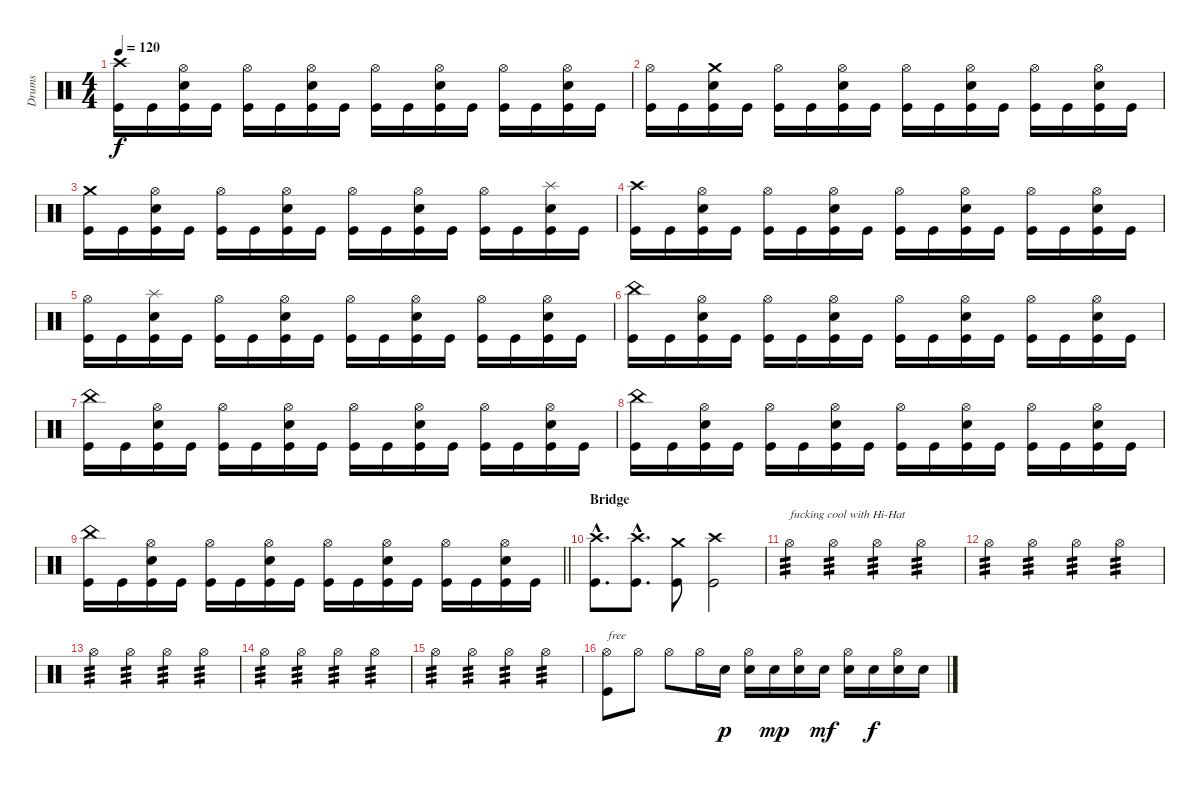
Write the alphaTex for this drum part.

\track ("Drums" "Drums") {instrument percussion}
\staff {score}
\articulation defaults
\ts (4 4)
\tempo 120
\clef neutral
\ks c
("Crash high (hit)" "Kick (hit)").16{dy f} "Kick (hit)".16 ("Hi-Hat (open)" "Electric Snare (hit)" "Kick (hit)").16 "Kick (hit)".16 ("Hi-Hat (open)" "Kick (hit)").16 "Kick (hit)".16 ("Hi-Hat (open)" "Electric Snare (hit)" "Kick (hit)").16 "Kick (hit)".16 ("Hi-Hat (open)" "Kick (hit)").16 "Kick (hit)".16 ("Hi-Hat (open)" "Electric Snare (hit)" "Kick (hit)").16 "Kick (hit)".16 ("Hi-Hat (open)" "Kick (hit)").16 "Kick (hit)".16 ("Hi-Hat (open)" "Electric Snare (hit)" "Kick (hit)").16 "Kick (hit)".16 |
("Hi-Hat (open)" "Kick (hit)").16 "Kick (hit)".16 ("Crash medium (hit)" "Electric Snare (hit)" "Kick (hit)").16 "Kick (hit)".16 ("Hi-Hat (open)" "Kick (hit)").16 "Kick (hit)".16 ("Hi-Hat (open)" "Electric Snare (hit)" "Kick (hit)").16 "Kick (hit)".16 ("Hi-Hat (open)" "Kick (hit)").16 "Kick (hit)".16 ("Hi-Hat (open)" "Electric Snare (hit)" "Kick (hit)").16 "Kick (hit)".16 ("Hi-Hat (open)" "Kick (hit)").16 "Kick (hit)".16 ("Hi-Hat (open)" "Electric Snare (hit)" "Kick (hit)").16 "Kick (hit)".16 |
("Crash medium (hit)" "Kick (hit)").16 "Kick (hit)".16 ("Hi-Hat (open)" "Electric Snare (hit)" "Kick (hit)").16 "Kick (hit)".16 ("Hi-Hat (open)" "Kick (hit)").16 "Kick (hit)".16 ("Hi-Hat (open)" "Electric Snare (hit)" "Kick (hit)").16 "Kick (hit)".16 ("Hi-Hat (open)" "Kick (hit)").16 "Kick (hit)".16 ("Hi-Hat (open)" "Electric Snare (hit)" "Kick (hit)").16 "Kick (hit)".16 ("Hi-Hat (open)" "Kick (hit)").16 "Kick (hit)".16 ("Splash (hit)" "Electric Snare (hit)" "Kick (hit)").16 "Kick (hit)".16 |
("Crash high (hit)" "Kick (hit)").16 "Kick (hit)".16 ("Hi-Hat (open)" "Electric Snare (hit)" "Kick (hit)").16 "Kick (hit)".16 ("Hi-Hat (open)" "Kick (hit)").16 "Kick (hit)".16 ("Hi-Hat (open)" "Electric Snare (hit)" "Kick (hit)").16 "Kick (hit)".16 ("Hi-Hat (open)" "Kick (hit)").16 "Kick (hit)".16 ("Hi-Hat (open)" "Electric Snare (hit)" "Kick (hit)").16 "Kick (hit)".16 ("Hi-Hat (open)" "Kick (hit)").16 "Kick (hit)".16 ("Hi-Hat (open)" "Electric Snare (hit)" "Kick (hit)").16 "Kick (hit)".16 |
("Hi-Hat (open)" "Kick (hit)").16 "Kick (hit)".16 ("Splash (hit)" "Electric Snare (hit)" "Kick (hit)").16 "Kick (hit)".16 ("Hi-Hat (open)" "Kick (hit)").16 "Kick (hit)".16 ("Hi-Hat (open)" "Electric Snare (hit)" "Kick (hit)").16 "Kick (hit)".16 ("Hi-Hat (open)" "Kick (hit)").16 "Kick (hit)".16 ("Hi-Hat (open)" "Electric Snare (hit)" "Kick (hit)").16 "Kick (hit)".16 ("Hi-Hat (open)" "Kick (hit)").16 "Kick (hit)".16 ("Hi-Hat (open)" "Electric Snare (hit)" "Kick (hit)").16 "Kick (hit)".16 |
("China (hit)" "Kick (hit)").16 "Kick (hit)".16 ("Hi-Hat (open)" "Electric Snare (hit)" "Kick (hit)").16 "Kick (hit)".16 ("Hi-Hat (open)" "Kick (hit)").16 "Kick (hit)".16 ("Hi-Hat (open)" "Electric Snare (hit)" "Kick (hit)").16 "Kick (hit)".16 ("Hi-Hat (open)" "Kick (hit)").16 "Kick (hit)".16 ("Hi-Hat (open)" "Electric Snare (hit)" "Kick (hit)").16 "Kick (hit)".16 ("Hi-Hat (open)" "Kick (hit)").16 "Kick (hit)".16 ("Hi-Hat (open)" "Electric Snare (hit)" "Kick (hit)").16 "Kick (hit)".16 |
("China (hit)" "Kick (hit)").16 "Kick (hit)".16 ("Hi-Hat (open)" "Electric Snare (hit)" "Kick (hit)").16 "Kick (hit)".16 ("Hi-Hat (open)" "Kick (hit)").16 "Kick (hit)".16 ("Hi-Hat (open)" "Electric Snare (hit)" "Kick (hit)").16 "Kick (hit)".16 ("Hi-Hat (open)" "Kick (hit)").16 "Kick (hit)".16 ("Hi-Hat (open)" "Electric Snare (hit)" "Kick (hit)").16 "Kick (hit)".16 ("Hi-Hat (open)" "Kick (hit)").16 "Kick (hit)".16 ("Hi-Hat (open)" "Electric Snare (hit)" "Kick (hit)").16 "Kick (hit)".16 |
("China (hit)" "Kick (hit)").16 "Kick (hit)".16 ("Hi-Hat (open)" "Electric Snare (hit)" "Kick (hit)").16 "Kick (hit)".16 ("Hi-Hat (open)" "Kick (hit)").16 "Kick (hit)".16 ("Hi-Hat (open)" "Electric Snare (hit)" "Kick (hit)").16 "Kick (hit)".16 ("Hi-Hat (open)" "Kick (hit)").16 "Kick (hit)".16 ("Hi-Hat (open)" "Electric Snare (hit)" "Kick (hit)").16 "Kick (hit)".16 ("Hi-Hat (open)" "Kick (hit)").16 "Kick (hit)".16 ("Hi-Hat (open)" "Electric Snare (hit)" "Kick (hit)").16 "Kick (hit)".16 |
\barLineRight lightlight
("China (hit)" "Kick (hit)").16 "Kick (hit)".16 ("Hi-Hat (open)" "Electric Snare (hit)" "Kick (hit)").16 "Kick (hit)".16 ("Hi-Hat (open)" "Kick (hit)").16 "Kick (hit)".16 ("Hi-Hat (open)" "Electric Snare (hit)" "Kick (hit)").16 "Kick (hit)".16 ("Hi-Hat (open)" "Kick (hit)").16 "Kick (hit)".16 ("Hi-Hat (open)" "Electric Snare (hit)" "Kick (hit)").16 "Kick (hit)".16 ("Hi-Hat (open)" "Kick (hit)").16 "Kick (hit)".16 ("Hi-Hat (open)" "Electric Snare (hit)" "Kick (hit)").16 "Kick (hit)".16 |
\section ("" "Bridge")
("Crash high (hit)"{hac} "Kick (hit)"{hac}).8{d} ("Crash high (hit)"{hac} "Kick (hit)"{hac}).8{d} ("Crash medium (hit)" "Kick (hit)").8 ("Crash high (hit)" "Kick (hit)").2 |
"Hi-Hat (open)".4{txt "fucking cool with Hi-Hat" tp 3} "Hi-Hat (open)".4{tp 3} "Hi-Hat (open)".4{tp 3} "Hi-Hat (open)".4{tp 3} |
"Hi-Hat (open)".4{tp 3} "Hi-Hat (open)".4{tp 3} "Hi-Hat (open)".4{tp 3} "Hi-Hat (open)".4{tp 3} |
"Hi-Hat (open)".4{tp 3} "Hi-Hat (open)".4{tp 3} "Hi-Hat (open)".4{tp 3} "Hi-Hat (open)".4{tp 3} |
"Hi-Hat (open)".4{tp 3} "Hi-Hat (open)".4{tp 3} "Hi-Hat (open)".4{tp 3} "Hi-Hat (open)".4{tp 3} |
"Hi-Hat (open)".4{tp 3} "Hi-Hat (open)".4{tp 3} "Hi-Hat (open)".4{tp 3} "Hi-Hat (open)".4{tp 3} |
("Hi-Hat (open)" "Kick (hit)").8{txt "free"} "Hi-Hat (open)".8 "Hi-Hat (open)".8 "Hi-Hat (open)".16 "Electric Snare (hit)".16{dy p} ("Hi-Hat (open)" "Electric Snare (hit)").16 "Electric Snare (hit)".16{dy mp} ("Hi-Hat (open)" "Electric Snare (hit)").16 "Electric Snare (hit)".16{dy mf} ("Hi-Hat (open)" "Electric Snare (hit)").16 "Electric Snare (hit)".16{dy f} ("Hi-Hat (open)" "Electric Snare (hit)").16 "Electric Snare (hit)".16
